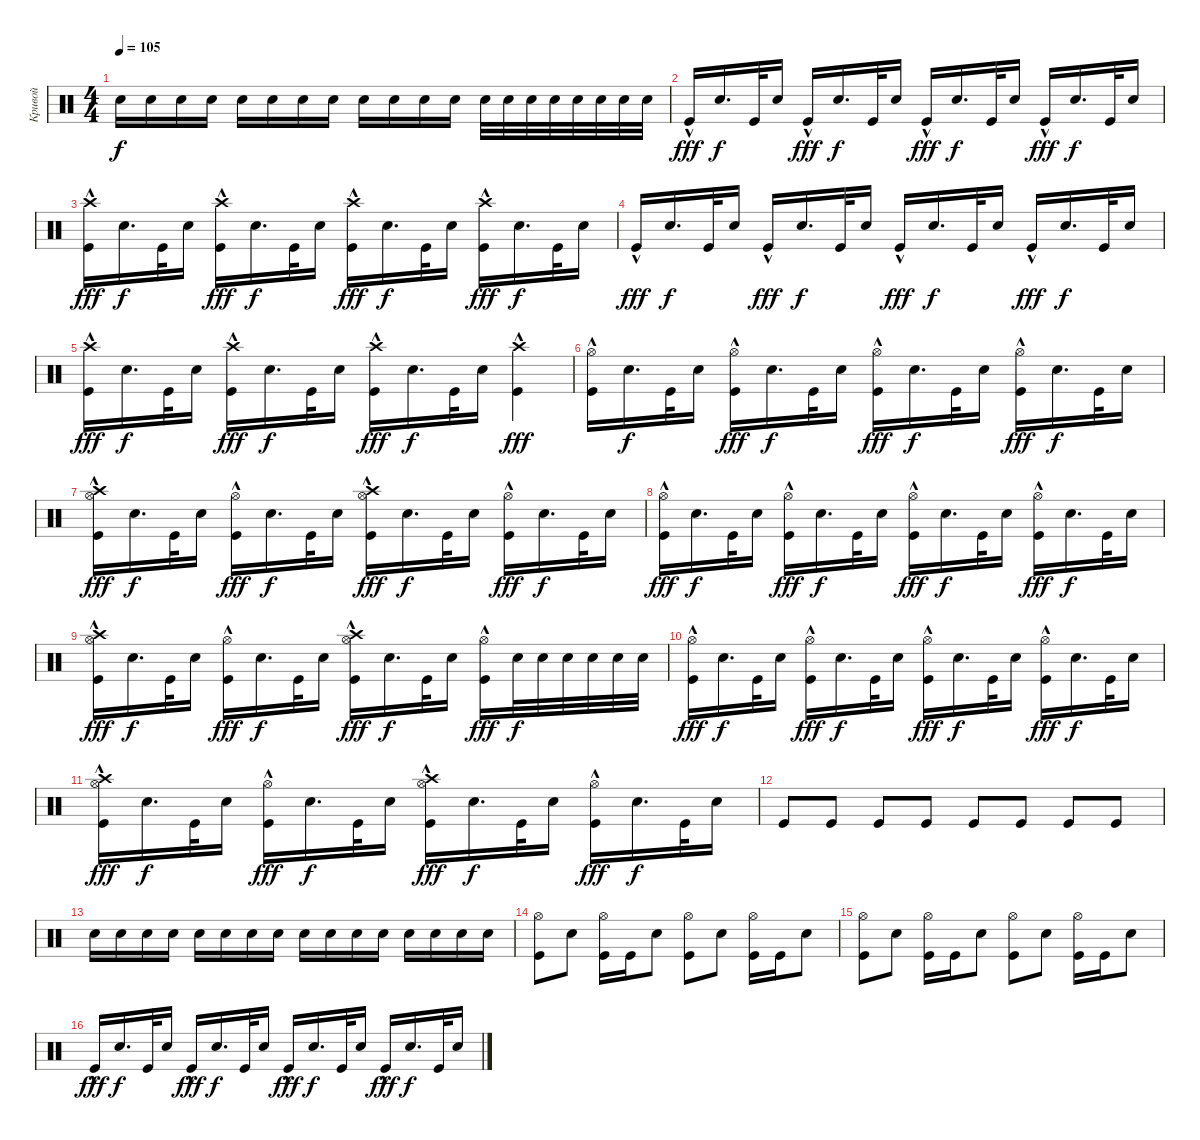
\track ("Кривой" "Кривой") {instrument percussion}
\staff {score}
\articulation defaults
\ts (4 4)
\tempo 105
\clef neutral
\ks c "Snare (hit) 2".16{dy f} "Snare (hit) 2".16 "Snare (hit) 2".16 "Snare (hit) 2".16 "Snare (hit) 2".16 "Snare (hit) 2".16 "Snare (hit) 2".16 "Snare (hit) 2".16 "Snare (hit) 2".16 "Snare (hit) 2".16 "Snare (hit) 2".16 "Snare (hit) 2".16 "Snare (hit) 2".32 "Snare (hit) 2".32 "Snare (hit) 2".32 "Snare (hit) 2".32 "Snare (hit) 2".32 "Snare (hit) 2".32 "Snare (hit) 2".32 "Snare (hit) 2".32
|
"Kick (hit)"{hac}.16{dy fff} "Snare (hit) 2".16{d dy f} "Kick (hit)".32 "Snare (hit) 2".16 "Kick (hit)"{hac}.16{dy fff} "Snare (hit) 2".16{d dy f} "Kick (hit)".32 "Snare (hit) 2".16 "Kick (hit)"{hac}.16{dy fff} "Snare (hit) 2".16{d dy f} "Kick (hit)".32 "Snare (hit) 2".16 "Kick (hit)"{hac}.16{dy fff} "Snare (hit) 2".16{d dy f} "Kick (hit)".32 "Snare (hit) 2".16 |
("Kick (hit)"{hac} "Crash high (hit)").16{dy fff} "Snare (hit) 2".16{d dy f} "Kick (hit)".32 "Snare (hit) 2".16 ("Kick (hit)"{hac} "Crash high (hit)").16{dy fff} "Snare (hit) 2".16{d dy f} "Kick (hit)".32 "Snare (hit) 2".16 ("Kick (hit)"{hac} "Crash high (hit)").16{dy fff} "Snare (hit) 2".16{d dy f} "Kick (hit)".32 "Snare (hit) 2".16 ("Kick (hit)"{hac} "Crash high (hit)").16{dy fff} "Snare (hit) 2".16{d dy f} "Kick (hit)".32 "Snare (hit) 2".16 |
"Kick (hit)"{hac}.16{dy fff} "Snare (hit) 2".16{d dy f} "Kick (hit)".32 "Snare (hit) 2".16 "Kick (hit)"{hac}.16{dy fff} "Snare (hit) 2".16{d dy f} "Kick (hit)".32 "Snare (hit) 2".16 "Kick (hit)"{hac}.16{dy fff} "Snare (hit) 2".16{d dy f} "Kick (hit)".32 "Snare (hit) 2".16 "Kick (hit)"{hac}.16{dy fff} "Snare (hit) 2".16{d dy f} "Kick (hit)".32 "Snare (hit) 2".16 |
("Kick (hit)"{hac} "Crash high (hit)").16{dy fff} "Snare (hit) 2".16{d dy f} "Kick (hit)".32 "Snare (hit) 2".16 ("Kick (hit)"{hac} "Crash high (hit)").16{dy fff} "Snare (hit) 2".16{d dy f} "Kick (hit)".32 "Snare (hit) 2".16 ("Kick (hit)"{hac} "Crash high (hit)").16{dy fff} "Snare (hit) 2".16{d dy f} "Kick (hit)".32 "Snare (hit) 2".16 ("Kick (hit)"{hac} "Crash high (hit)").4{dy fff} |
("Kick (hit)"{hac} "Hi-Hat (open)").16 "Snare (hit) 2".16{d dy f} "Kick (hit)".32 "Snare (hit) 2".16 ("Kick (hit)"{hac} "Hi-Hat (open)").16{dy fff} "Snare (hit) 2".16{d dy f} "Kick (hit)".32 "Snare (hit) 2".16 ("Kick (hit)"{hac} "Hi-Hat (open)").16{dy fff} "Snare (hit) 2".16{d dy f} "Kick (hit)".32 "Snare (hit) 2".16 ("Kick (hit)"{hac} "Hi-Hat (open)").16{dy fff} "Snare (hit) 2".16{d dy f} "Kick (hit)".32 "Snare (hit) 2".16 |
("Kick (hit)"{hac} "Hi-Hat (open)" "Crash high (hit)").16{dy fff} "Snare (hit) 2".16{d dy f} "Kick (hit)".32 "Snare (hit) 2".16 ("Kick (hit)"{hac} "Hi-Hat (open)").16{dy fff} "Snare (hit) 2".16{d dy f} "Kick (hit)".32 "Snare (hit) 2".16 ("Kick (hit)"{hac} "Hi-Hat (open)" "Crash high (hit)").16{dy fff} "Snare (hit) 2".16{d dy f} "Kick (hit)".32 "Snare (hit) 2".16 ("Kick (hit)"{hac} "Hi-Hat (open)").16{dy fff} "Snare (hit) 2".16{d dy f} "Kick (hit)".32 "Snare (hit) 2".16 |
("Kick (hit)"{hac} "Hi-Hat (open)").16{dy fff} "Snare (hit) 2".16{d dy f} "Kick (hit)".32 "Snare (hit) 2".16 ("Kick (hit)"{hac} "Hi-Hat (open)").16{dy fff} "Snare (hit) 2".16{d dy f} "Kick (hit)".32 "Snare (hit) 2".16 ("Kick (hit)"{hac} "Hi-Hat (open)").16{dy fff} "Snare (hit) 2".16{d dy f} "Kick (hit)".32 "Snare (hit) 2".16 ("Kick (hit)"{hac} "Hi-Hat (open)").16{dy fff} "Snare (hit) 2".16{d dy f} "Kick (hit)".32 "Snare (hit) 2".16 |
("Kick (hit)"{hac} "Hi-Hat (open)" "Crash high (hit)").16{dy fff} "Snare (hit) 2".16{d dy f} "Kick (hit)".32 "Snare (hit) 2".16 ("Kick (hit)"{hac} "Hi-Hat (open)").16{dy fff} "Snare (hit) 2".16{d dy f} "Kick (hit)".32 "Snare (hit) 2".16 ("Kick (hit)"{hac} "Hi-Hat (open)" "Crash high (hit)").16{dy fff} "Snare (hit) 2".16{d dy f} "Kick (hit)".32 "Snare (hit) 2".16 ("Kick (hit)"{hac} "Hi-Hat (open)").16{dy fff} "Snare (hit) 2".32{dy f} "Snare (hit) 2".32 "Snare (hit) 2".32 "Snare (hit) 2".32 "Snare (hit) 2".32 "Snare (hit) 2".32 |
("Kick (hit)"{hac} "Hi-Hat (open)").16{dy fff} "Snare (hit) 2".16{d dy f} "Kick (hit)".32 "Snare (hit) 2".16 ("Kick (hit)"{hac} "Hi-Hat (open)").16{dy fff} "Snare (hit) 2".16{d dy f} "Kick (hit)".32 "Snare (hit) 2".16 ("Kick (hit)"{hac} "Hi-Hat (open)").16{dy fff} "Snare (hit) 2".16{d dy f} "Kick (hit)".32 "Snare (hit) 2".16 ("Kick (hit)"{hac} "Hi-Hat (open)").16{dy fff} "Snare (hit) 2".16{d dy f} "Kick (hit)".32 "Snare (hit) 2".16 |
("Kick (hit)"{hac} "Hi-Hat (open)" "Crash high (hit)").16{dy fff} "Snare (hit) 2".16{d dy f} "Kick (hit)".32 "Snare (hit) 2".16 ("Kick (hit)"{hac} "Hi-Hat (open)").16{dy fff} "Snare (hit) 2".16{d dy f} "Kick (hit)".32 "Snare (hit) 2".16 ("Kick (hit)"{hac} "Hi-Hat (open)" "Crash high (hit)").16{dy fff} "Snare (hit) 2".16{d dy f} "Kick (hit)".32 "Snare (hit) 2".16 ("Kick (hit)"{hac} "Hi-Hat (open)").16{dy fff} "Snare (hit) 2".16{d dy f} "Kick (hit)".32 "Snare (hit) 2".16 |
"Kick (hit)".8 "Kick (hit)".8 "Kick (hit)".8 "Kick (hit)".8 "Kick (hit)".8 "Kick (hit)".8 "Kick (hit)".8 "Kick (hit)".8 |
"Snare (hit) 2".16 "Snare (hit) 2".16 "Snare (hit) 2".16 "Snare (hit) 2".16 "Snare (hit) 2".16 "Snare (hit) 2".16 "Snare (hit) 2".16 "Snare (hit) 2".16 "Snare (hit) 2".16 "Snare (hit) 2".16 "Snare (hit) 2".16 "Snare (hit) 2".16 "Snare (hit) 2".16 "Snare (hit) 2".16 "Snare (hit) 2".16 "Snare (hit) 2".16 |
("Kick (hit)" "Hi-Hat (open)").8 "Snare (hit) 2".8 ("Kick (hit)" "Hi-Hat (open)").16 "Kick (hit)".16 "Snare (hit) 2".8 ("Kick (hit)" "Hi-Hat (open)").8 "Snare (hit) 2".8 ("Kick (hit)" "Hi-Hat (open)").16 "Kick (hit)".16 "Snare (hit) 2".8 |
("Kick (hit)" "Hi-Hat (open)").8 "Snare (hit) 2".8 ("Kick (hit)" "Hi-Hat (open)").16 "Kick (hit)".16 "Snare (hit) 2".8 ("Kick (hit)" "Hi-Hat (open)").8 "Snare (hit) 2".8 ("Kick (hit)" "Hi-Hat (open)").16 "Kick (hit)".16 "Snare (hit) 2".8 |
"Kick (hit)"{hac}.16{dy fff} "Snare (hit) 2".16{d dy f} "Kick (hit)".32 "Snare (hit) 2".16 "Kick (hit)"{hac}.16{dy fff} "Snare (hit) 2".16{d dy f} "Kick (hit)".32 "Snare (hit) 2".16 "Kick (hit)"{hac}.16{dy fff} "Snare (hit) 2".16{d dy f} "Kick (hit)".32 "Snare (hit) 2".16 "Kick (hit)"{hac}.16{dy fff} "Snare (hit) 2".16{d dy f} "Kick (hit)".32 "Snare (hit) 2".16
